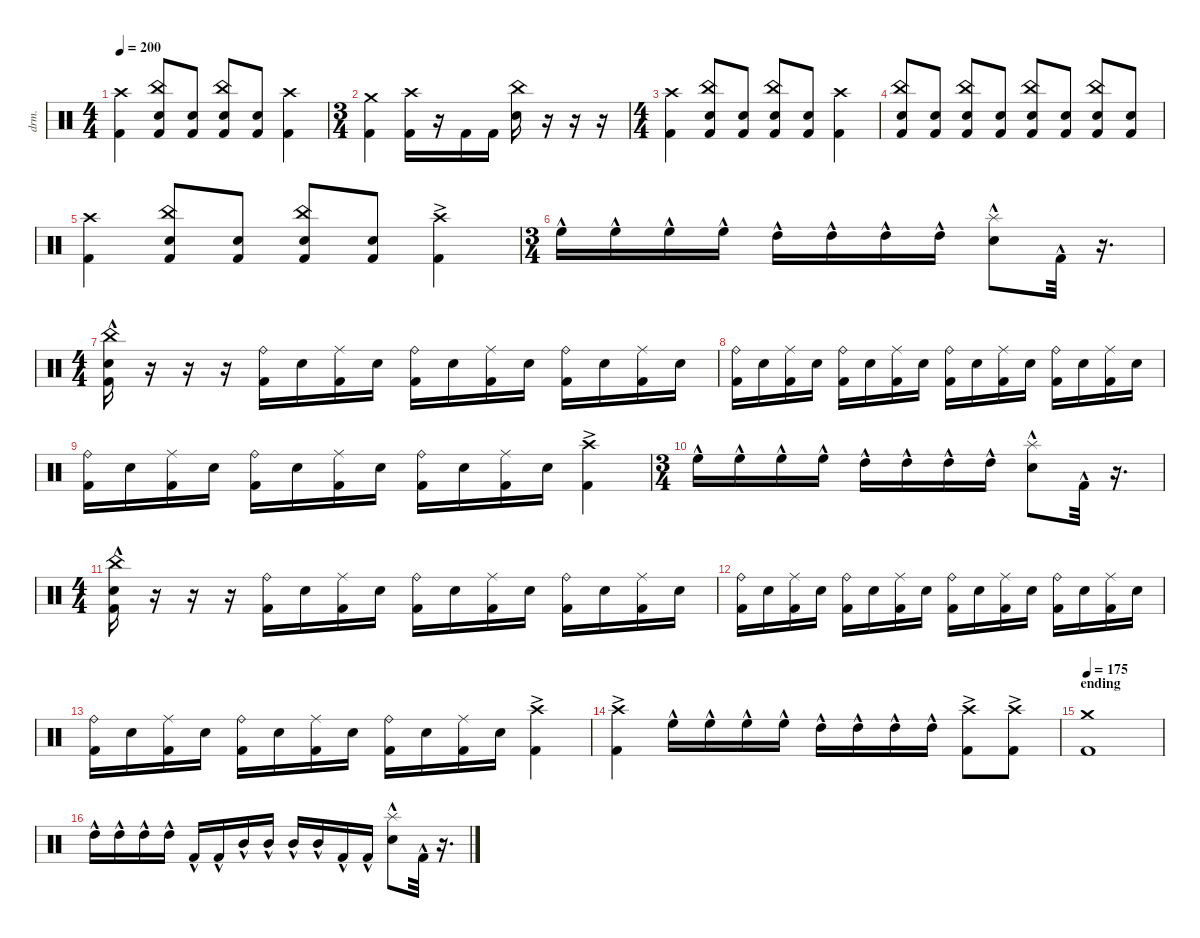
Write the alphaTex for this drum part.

\defaultSystemsLayout 4
\hideDynamics
\bracketExtendMode nobrackets
\otherSystemsTrackNameOrientation horizontal
\track ("Drumkit" "drm.") {instrument percussion}
\staff {score}
\articulation defaults
\ts (4 4)
\tempo 200
\clef neutral
\ks c
("Kick (hit) 2" "Crash high (hit)").4{dy mf beam Down} ("Kick (hit) 2" "Snare (hit) 2" "China (hit)").8{beam Up} ("Kick (hit) 2" "Snare (hit) 2").8{beam Up} ("Kick (hit) 2" "Snare (hit) 2" "China (hit)").8{beam Up} ("Kick (hit) 2" "Snare (hit) 2").8{beam Up} ("Kick (hit) 2" "Crash high (hit)").4{beam Down} |
\ts (3 4)
\beaming (8 2 2 2)
("Kick (hit) 2" "Crash medium (hit)").4{beam Down} ("Kick (hit) 2" "Crash high (hit)").16{beam Down} r.16{beam Down} "Kick (hit) 2".16{beam Down} "Kick (hit) 2".16{beam Down} ("Snare (hit) 2" "China (hit)").16{beam Down} r.16{beam Down} r.16{beam Down} r.16{beam Down} |
\ts (4 4)
\beaming (8 2 2 2 2)
("Kick (hit) 2" "Crash high (hit)").4{beam Down} ("Kick (hit) 2" "Snare (hit) 2" "China (hit)").8{beam Up} ("Kick (hit) 2" "Snare (hit) 2").8{beam Up} ("Kick (hit) 2" "Snare (hit) 2" "China (hit)").8{beam Up} ("Kick (hit) 2" "Snare (hit) 2").8{beam Up} ("Kick (hit) 2" "Crash high (hit)").4{beam Down} |
("Kick (hit) 2" "Snare (hit) 2" "China (hit)").8{beam Up} ("Kick (hit) 2" "Snare (hit) 2").8{beam Up} ("Kick (hit) 2" "Snare (hit) 2" "China (hit)").8{beam Up} ("Kick (hit) 2" "Snare (hit) 2").8{beam Up} ("Kick (hit) 2" "Snare (hit) 2" "China (hit)").8{beam Up} ("Kick (hit) 2" "Snare (hit) 2").8{beam Up} ("Kick (hit) 2" "Snare (hit) 2" "China (hit)").8{beam Up} ("Kick (hit) 2" "Snare (hit) 2").8{beam Up} |
("Kick (hit) 2" "Crash high (hit)").4{beam Down} ("Kick (hit) 2" "Snare (hit) 2" "China (hit)").8{beam Up} ("Kick (hit) 2" "Snare (hit) 2").8{beam Up} ("Kick (hit) 2" "Snare (hit) 2" "China (hit)").8{beam Up} ("Kick (hit) 2" "Snare (hit) 2").8{beam Up} ("Kick (hit) 2"{ac} "Crash high (hit)"{ac}).4{beam Down} |
\ts (3 4)
\beaming (8 2 2 2)
"High Floor Tom (hit)"{hac}.16{beam Down} "High Floor Tom (hit)"{hac}.16{beam Down} "High Floor Tom (hit)"{hac}.16{beam Down} "High Floor Tom (hit)"{hac}.16{beam Down} "High Tom (hit)"{hac}.16{beam Down} "High Tom (hit)"{hac}.16{beam Down} "High Tom (hit)"{hac}.16{beam Down} "High Tom (hit)"{hac}.16{beam Down} ("Snare (hit) 2"{hac} "Splash (hit)"{hac}).8{beam Down} "Kick (hit) 2"{hac}.32{beam Down} r.16{d beam Down} |
\ts (4 4)
\beaming (8 2 2 2 2)
("Kick (hit) 2"{hac} "Snare (hit) 2"{hac} "China (hit)"{hac}).16{beam Down} r.16{beam Down} r.16{beam Down} r.16{beam Down} ("Kick (hit) 2" "Ride (bell)").16{beam Down} "Snare (hit) 2".16{beam Down} ("Kick (hit) 2" "Ride (middle)").16{beam Down} "Snare (hit) 2".16{beam Down} ("Kick (hit) 2" "Ride (bell)").16{beam Down} "Snare (hit) 2".16{beam Down} ("Kick (hit) 2" "Ride (middle)").16{beam Down} "Snare (hit) 2".16{beam Down} ("Kick (hit) 2" "Ride (bell)").16{beam Down} "Snare (hit) 2".16{beam Down} ("Kick (hit) 2" "Ride (middle)").16{beam Down} "Snare (hit) 2".16{beam Down} |
("Kick (hit) 2" "Ride (bell)").16{beam Down} "Snare (hit) 2".16{beam Down} ("Kick (hit) 2" "Ride (middle)").16{beam Down} "Snare (hit) 2".16{beam Down} ("Kick (hit) 2" "Ride (bell)").16{beam Down} "Snare (hit) 2".16{beam Down} ("Kick (hit) 2" "Ride (middle)").16{beam Down} "Snare (hit) 2".16{beam Down} ("Kick (hit) 2" "Ride (bell)").16{beam Down} "Snare (hit) 2".16{beam Down} ("Kick (hit) 2" "Ride (middle)").16{beam Down} "Snare (hit) 2".16{beam Down} ("Kick (hit) 2" "Ride (bell)").16{beam Down} "Snare (hit) 2".16{beam Down} ("Kick (hit) 2" "Ride (middle)").16{beam Down} "Snare (hit) 2".16{beam Down} |
("Kick (hit) 2" "Ride (bell)").16{beam Down} "Snare (hit) 2".16{beam Down} ("Kick (hit) 2" "Ride (middle)").16{beam Down} "Snare (hit) 2".16{beam Down} ("Kick (hit) 2" "Ride (bell)").16{beam Down} "Snare (hit) 2".16{beam Down} ("Kick (hit) 2" "Ride (middle)").16{beam Down} "Snare (hit) 2".16{beam Down} ("Kick (hit) 2" "Ride (bell)").16{beam Down} "Snare (hit) 2".16{beam Down} ("Kick (hit) 2" "Ride (middle)").16{beam Down} "Snare (hit) 2".16{beam Down} ("Kick (hit) 2"{ac} "Crash high (hit)"{ac}).4{beam Down} |
\ts (3 4)
\beaming (8 2 2 2)
"High Floor Tom (hit)"{hac}.16{beam Down} "High Floor Tom (hit)"{hac}.16{beam Down} "High Floor Tom (hit)"{hac}.16{beam Down} "High Floor Tom (hit)"{hac}.16{beam Down} "High Tom (hit)"{hac}.16{beam Down} "High Tom (hit)"{hac}.16{beam Down} "High Tom (hit)"{hac}.16{beam Down} "High Tom (hit)"{hac}.16{beam Down} ("Snare (hit) 2"{hac} "Splash (hit)"{hac}).8{beam Down} "Kick (hit) 2"{hac}.32{beam Down} r.16{d beam Down} |
\ts (4 4)
\beaming (8 2 2 2 2)
("Kick (hit) 2"{hac} "Snare (hit) 2"{hac} "China (hit)"{hac}).16{beam Down} r.16{beam Down} r.16{beam Down} r.16{beam Down} ("Kick (hit) 2" "Ride (bell)").16{beam Down} "Snare (hit) 2".16{beam Down} ("Kick (hit) 2" "Ride (middle)").16{beam Down} "Snare (hit) 2".16{beam Down} ("Kick (hit) 2" "Ride (bell)").16{beam Down} "Snare (hit) 2".16{beam Down} ("Kick (hit) 2" "Ride (middle)").16{beam Down} "Snare (hit) 2".16{beam Down} ("Kick (hit) 2" "Ride (bell)").16{beam Down} "Snare (hit) 2".16{beam Down} ("Kick (hit) 2" "Ride (middle)").16{beam Down} "Snare (hit) 2".16{beam Down} |
("Kick (hit) 2" "Ride (bell)").16{beam Down} "Snare (hit) 2".16{beam Down} ("Kick (hit) 2" "Ride (middle)").16{beam Down} "Snare (hit) 2".16{beam Down} ("Kick (hit) 2" "Ride (bell)").16{beam Down} "Snare (hit) 2".16{beam Down} ("Kick (hit) 2" "Ride (middle)").16{beam Down} "Snare (hit) 2".16{beam Down} ("Kick (hit) 2" "Ride (bell)").16{beam Down} "Snare (hit) 2".16{beam Down} ("Kick (hit) 2" "Ride (middle)").16{beam Down} "Snare (hit) 2".16{beam Down} ("Kick (hit) 2" "Ride (bell)").16{beam Down} "Snare (hit) 2".16{beam Down} ("Kick (hit) 2" "Ride (middle)").16{beam Down} "Snare (hit) 2".16{beam Down} |
("Kick (hit) 2" "Ride (bell)").16{beam Down} "Snare (hit) 2".16{beam Down} ("Kick (hit) 2" "Ride (middle)").16{beam Down} "Snare (hit) 2".16{beam Down} ("Kick (hit) 2" "Ride (bell)").16{beam Down} "Snare (hit) 2".16{beam Down} ("Kick (hit) 2" "Ride (middle)").16{beam Down} "Snare (hit) 2".16{beam Down} ("Kick (hit) 2" "Ride (bell)").16{beam Down} "Snare (hit) 2".16{beam Down} ("Kick (hit) 2" "Ride (middle)").16{beam Down} "Snare (hit) 2".16{beam Down} ("Kick (hit) 2"{ac} "Crash high (hit)"{ac}).4{beam Down} |
("Kick (hit) 2"{ac} "Crash high (hit)"{ac}).4{beam Down} "High Floor Tom (hit)"{hac}.16{beam Down} "High Floor Tom (hit)"{hac}.16{beam Down} "High Floor Tom (hit)"{hac}.16{beam Down} "High Floor Tom (hit)"{hac}.16{beam Down} "High Tom (hit)"{hac}.16{beam Down} "High Tom (hit)"{hac}.16{beam Down} "High Tom (hit)"{hac}.16{beam Down} "High Tom (hit)"{hac}.16{beam Down} ("Kick (hit) 2"{ac} "Crash high (hit)"{ac}).8{beam Down} ("Kick (hit) 2"{ac} "Crash high (hit)"{ac}).8{beam Down} |
\section ("" "ending")
\tempo 175
("Kick (hit) 2" "Crash medium (hit)").1{beam Down} |
"High Tom (hit)"{hac}.16{beam Down} "High Tom (hit)"{hac}.16{beam Down} "High Tom (hit)"{hac}.16{beam Down} "High Tom (hit)"{hac}.16{beam Down} "Kick (hit) 2"{hac}.16{beam Up} "Kick (hit) 2"{hac}.16{beam Up} "Mid Tom (hit)"{hac}.16{beam Up} "Mid Tom (hit)"{hac}.16{beam Up} "Mid Tom (hit)"{hac}.16{beam Up} "Mid Tom (hit)"{hac}.16{beam Up} "Kick (hit) 2"{hac}.16{beam Up} "Kick (hit) 2"{hac}.16{beam Up} ("Snare (hit) 2"{hac} "Splash (hit)"{hac}).8{beam Down} "Kick (hit) 2"{hac}.32{beam Down} r.16{d beam Down}
